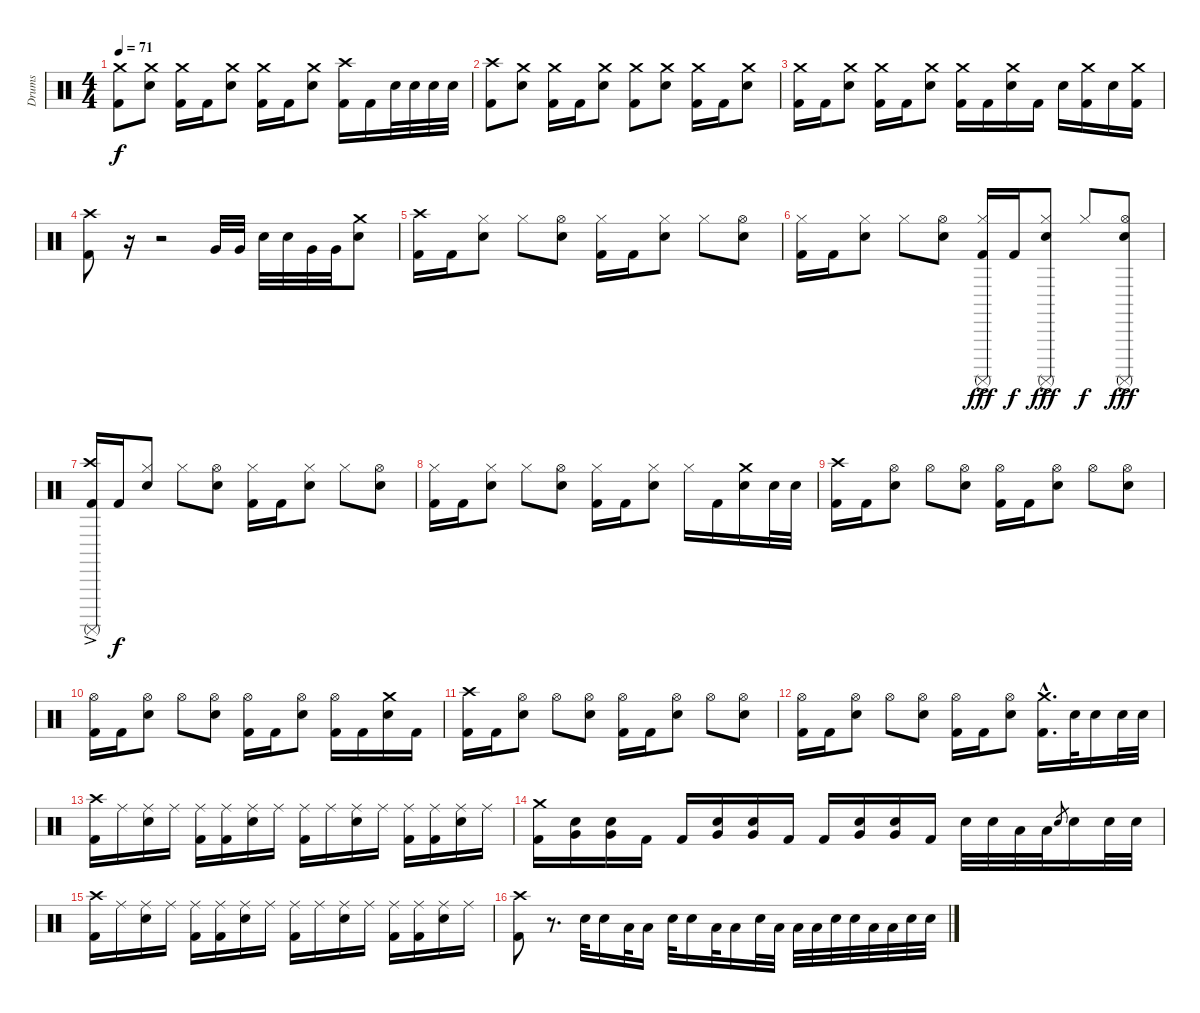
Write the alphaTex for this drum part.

\track ("Drums" "Drums") {instrument percussion}
\staff {score}
\articulation defaults
\ts (4 4)
\tempo 71
\clef neutral
\ks c
("Crash medium (hit)" "Kick (hit) 2").8{dy f} ("Crash medium (hit)" "Snare (hit) 2").8 ("Crash medium (hit)" "Kick (hit) 2").16 "Kick (hit) 2".16 ("Crash medium (hit)" "Snare (hit) 2").8 ("Crash medium (hit)" "Kick (hit) 2").16 "Kick (hit) 2".16 ("Crash medium (hit)" "Snare (hit) 2").8 ("Crash high (hit)" "Kick (hit) 2").16 "Kick (hit) 2".16 "Snare (hit) 2".32 "Snare (hit) 2".32 "Snare (hit) 2".32 "Snare (hit) 2".32 |
("Crash high (hit)" "Kick (hit) 2").8 ("Crash medium (hit)" "Snare (hit) 2").8 ("Crash medium (hit)" "Kick (hit) 2").16 "Kick (hit) 2".16 ("Crash medium (hit)" "Snare (hit) 2").8 ("Crash medium (hit)" "Kick (hit) 2").8 ("Crash medium (hit)" "Snare (hit) 2").8 ("Crash medium (hit)" "Kick (hit) 2").16 "Kick (hit) 2".16 ("Crash medium (hit)" "Snare (hit) 2").8 |
("Crash medium (hit)" "Kick (hit) 2").16 "Kick (hit) 2".16 ("Crash medium (hit)" "Snare (hit) 2").8 ("Crash medium (hit)" "Kick (hit) 2").16 "Kick (hit) 2".16 ("Crash medium (hit)" "Snare (hit) 2").8 ("Crash medium (hit)" "Kick (hit) 2").16 "Kick (hit) 2".16 ("Crash medium (hit)" "Snare (hit) 2").16 "Kick (hit) 2".16 "Snare (hit) 2".16 ("Crash medium (hit)" "Kick (hit) 2").16 "Snare (hit) 2".16 ("Crash medium (hit)" "Kick (hit) 2").16 |
("Crash high (hit)" "Kick (hit) 2").8 r.16{volume 0} r.2 "Very Low Tom (hit)".32{volume 16} "Very Low Tom (hit)".32 "Snare (hit) 2".32 "Snare (hit) 2".32 "Very Low Tom (hit)".32 "Very Low Tom (hit)".32 ("Crash medium (hit)" "Snare (hit) 2").8 |
("Crash high (hit)" "Kick (hit) 2").16 "Kick (hit) 2".16 ("Hi-Hat (closed)" "Snare (hit) 2").8 "Hi-Hat (closed)".8 ("Hi-Hat (open)" "Snare (hit) 2").8 ("Hi-Hat (closed)" "Kick (hit) 2").16 "Kick (hit) 2".16 ("Hi-Hat (closed)" "Snare (hit) 2").8 "Hi-Hat (closed)".8 ("Hi-Hat (open)" "Snare (hit) 2").8 |
("Hi-Hat (closed)" "Kick (hit) 2").16 "Kick (hit) 2".16 ("Hi-Hat (closed)" "Snare (hit) 2").8 "Hi-Hat (closed)".8 ("Hi-Hat (open)" "Snare (hit) 2").8 ("Hi-Hat (closed)" "Surdo (mute)"{ac} "Kick (hit) 2").16{dy fff} "Kick (hit) 2".16{dy f} ("Hi-Hat (closed)" "Snare (hit) 2" "Surdo (mute)"{ac}).8{dy fff} "Hi-Hat (closed)".8{dy f} ("Hi-Hat (open)" "Snare (hit) 2" "Surdo (mute)"{ac}).8{dy fff} |
("Crash high (hit)" "Surdo (mute)"{ac} "Kick (hit) 2").16 "Kick (hit) 2".16{dy f} ("Hi-Hat (closed)" "Snare (hit) 2").8 "Hi-Hat (closed)".8 ("Hi-Hat (open)" "Snare (hit) 2").8 ("Hi-Hat (closed)" "Kick (hit) 2").16 "Kick (hit) 2".16 ("Hi-Hat (closed)" "Snare (hit) 2").8 "Hi-Hat (closed)".8 ("Hi-Hat (open)" "Snare (hit) 2").8 |
("Hi-Hat (closed)" "Kick (hit) 2").16 "Kick (hit) 2".16 ("Hi-Hat (closed)" "Snare (hit) 2").8 "Hi-Hat (closed)".8 ("Hi-Hat (open)" "Snare (hit) 2").8 ("Hi-Hat (closed)" "Kick (hit) 2").16 "Kick (hit) 2".16 ("Hi-Hat (closed)" "Snare (hit) 2").8 "Hi-Hat (closed)".16 "Kick (hit) 2".16 ("Crash medium (hit)" "Snare (hit) 2").16 "Snare (hit) 2".32 "Snare (hit) 2".32 |
("Crash high (hit)" "Kick (hit) 2").16 "Kick (hit) 2".16 ("Hi-Hat (open)" "Snare (hit) 2").8 "Hi-Hat (open)".8 ("Hi-Hat (open)" "Snare (hit) 2").8 ("Hi-Hat (open)" "Kick (hit) 2").16 "Kick (hit) 2".16 ("Hi-Hat (open)" "Snare (hit) 2").8 "Hi-Hat (open)".8 ("Hi-Hat (open)" "Snare (hit) 2").8 |
("Hi-Hat (open)" "Kick (hit) 2").16 "Kick (hit) 2".16 ("Hi-Hat (open)" "Snare (hit) 2").8 "Hi-Hat (open)".8 ("Hi-Hat (open)" "Snare (hit) 2").8 ("Hi-Hat (open)" "Kick (hit) 2").16 "Kick (hit) 2".16 ("Hi-Hat (open)" "Snare (hit) 2").8 ("Hi-Hat (open)" "Kick (hit) 2").16 "Kick (hit) 2".16 ("Crash medium (hit)" "Snare (hit) 2").16 "Kick (hit) 2".16 |
("Crash high (hit)" "Kick (hit) 2").16 "Kick (hit) 2".16 ("Hi-Hat (open)" "Snare (hit) 2").8 "Hi-Hat (open)".8 ("Hi-Hat (open)" "Snare (hit) 2").8 ("Hi-Hat (open)" "Kick (hit) 2").16 "Kick (hit) 2".16 ("Hi-Hat (open)" "Snare (hit) 2").8 "Hi-Hat (open)".8 ("Hi-Hat (open)" "Snare (hit) 2").8 |
("Hi-Hat (open)" "Kick (hit) 2").16 "Kick (hit) 2".16 ("Hi-Hat (open)" "Snare (hit) 2").8 "Hi-Hat (open)".8 ("Hi-Hat (open)" "Snare (hit) 2").8 ("Hi-Hat (open)" "Kick (hit) 2").16 "Kick (hit) 2".16 ("Hi-Hat (open)" "Snare (hit) 2").8 ("Crash medium (hit)"{hac} "Kick (hit) 2"{hac}).16{d} "Snare (hit) 2".32 "Snare (hit) 2".16 "Snare (hit) 2".32 "Snare (hit) 2".32 |
("Crash high (hit)" "Kick (hit) 2").16 "Ride (middle)".16 ("Ride (middle)" "Snare (hit) 2").16 "Ride (middle)".16 ("Ride (middle)" "Kick (hit) 2").16 ("Ride (middle)" "Kick (hit) 2").16 ("Ride (middle)" "Snare (hit) 2").16 "Ride (middle)".16 ("Ride (middle)" "Kick (hit) 2").16 "Ride (middle)".16 ("Ride (middle)" "Snare (hit) 2").16 "Ride (middle)".16 ("Ride (middle)" "Kick (hit) 2").16 ("Ride (middle)" "Kick (hit) 2").16 ("Ride (middle)" "Snare (hit) 2").16 "Ride (middle)".16 |
("Crash medium (hit)" "Kick (hit) 2").16 ("Snare (hit) 2" "Very Low Tom (hit)").16 ("Snare (hit) 2" "Very Low Tom (hit)").16 "Kick (hit) 2".16 "Kick (hit) 2".16 ("Snare (hit) 2" "Very Low Tom (hit)").16 ("Snare (hit) 2" "Very Low Tom (hit)").16 "Kick (hit) 2".16 "Kick (hit) 2".16 ("Snare (hit) 2" "Very Low Tom (hit)").16 ("Snare (hit) 2" "Very Low Tom (hit)").16 "Kick (hit) 2".16 "Snare (hit) 2".32 "Snare (hit) 2".32 "Low Tom (hit)".32 "Low Tom (hit)".32 "Snare (hit) 2".8{gr} "Snare (hit) 2".16 "Snare (hit) 2".32 "Snare (hit) 2".32 |
("Crash high (hit)" "Kick (hit) 2").16 "Ride (middle)".16 ("Ride (middle)" "Snare (hit) 2").16 "Ride (middle)".16 ("Ride (middle)" "Kick (hit) 2").16 ("Ride (middle)" "Kick (hit) 2").16 ("Ride (middle)" "Snare (hit) 2").16 "Ride (middle)".16 ("Ride (middle)" "Kick (hit) 2").16 "Ride (middle)".16 ("Ride (middle)" "Snare (hit) 2").16 "Ride (middle)".16 ("Ride (middle)" "Kick (hit) 2").16 ("Ride (middle)" "Kick (hit) 2").16 ("Ride (middle)" "Snare (hit) 2").16 "Ride (middle)".16 |
("Crash high (hit)" "Kick (hit) 2").8 r.8{d volume 0} "Snare (hit) 2".32{volume 16} "Snare (hit) 2".16 "Low Tom (hit)".32 "Low Tom (hit)".16 "Snare (hit) 2".32 "Snare (hit) 2".16 "Low Tom (hit)".32 "Low Tom (hit)".16 "Snare (hit) 2".32 "Low Tom (hit)".32 "Low Tom (hit)".32 "Low Tom (hit)".32 "Snare (hit) 2".32 "Snare (hit) 2".32 "Low Tom (hit)".32 "Low Tom (hit)".32 "Snare (hit) 2".32 "Snare (hit) 2".32
